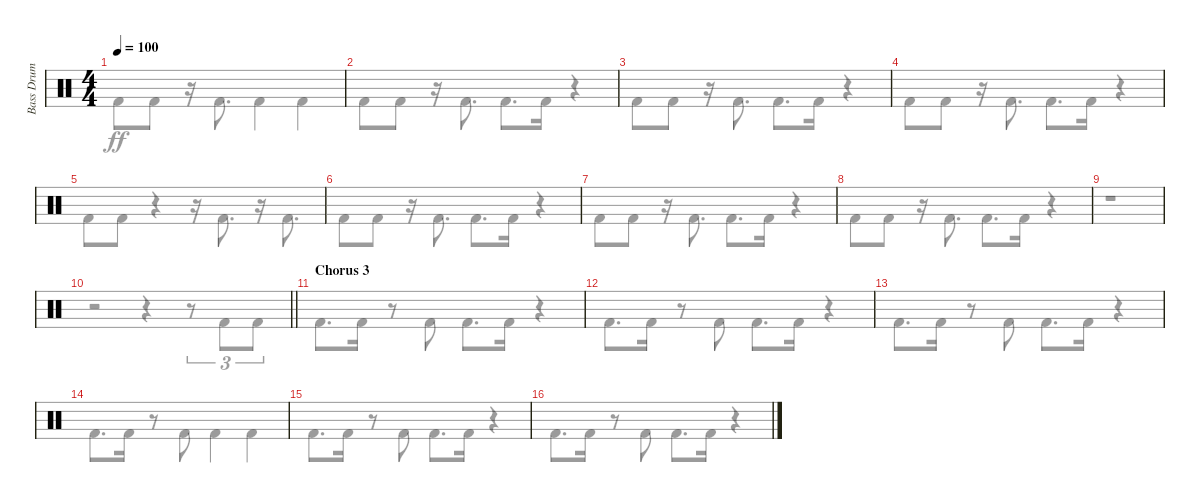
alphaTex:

\track ("Bass Drum" "Bass Drum") {instrument percussion}
\staff {score}
\articulation defaults
\voice
\ts (4 4)
\tempo 100
\clef neutral
\ks c
|
|
|
|
|
|
|
|
|
\barLineRight lightlight
|
\section ("" "Chorus 3")
|
|
|
|
|
\voice
\clef neutral
\ks c "Kick (hit) 2".8{dy ff} "Kick (hit) 2".8
r.16 "Kick (hit) 2".8{d} "Kick (hit) 2".4 "Kick (hit) 2".4 |
"Kick (hit) 2".8 "Kick (hit) 2".8 r.16 "Kick (hit) 2".8{d} "Kick (hit) 2".8{d} "Kick (hit) 2".16 r.4 |
"Kick (hit) 2".8 "Kick (hit) 2".8 r.16 "Kick (hit) 2".8{d} "Kick (hit) 2".8{d} "Kick (hit) 2".16 r.4 |
"Kick (hit) 2".8 "Kick (hit) 2".8 r.16 "Kick (hit) 2".8{d} "Kick (hit) 2".8{d} "Kick (hit) 2".16 r.4 |
"Kick (hit) 2".8 "Kick (hit) 2".8 r.4 r.16 "Kick (hit) 2".8{d} r.16 "Kick (hit) 2".8{d} |
"Kick (hit) 2".8 "Kick (hit) 2".8 r.16 "Kick (hit) 2".8{d} "Kick (hit) 2".8{d} "Kick (hit) 2".16 r.4 |
"Kick (hit) 2".8 "Kick (hit) 2".8 r.16 "Kick (hit) 2".8{d} "Kick (hit) 2".8{d} "Kick (hit) 2".16 r.4 |
"Kick (hit) 2".8 "Kick (hit) 2".8 r.16 "Kick (hit) 2".8{d} "Kick (hit) 2".8{d} "Kick (hit) 2".16 r.4 |
r.1 |
\barLineRight lightlight
r.2 r.4 r.8{tu (3 2)} "Kick (hit) 2".8{tu (3 2)} "Kick (hit) 2".8{tu (3 2)} |
"Kick (hit) 2".8{d} "Kick (hit) 2".16 r.8 "Kick (hit) 2".8 "Kick (hit) 2".8{d} "Kick (hit) 2".16 r.4 |
"Kick (hit) 2".8{d} "Kick (hit) 2".16 r.8 "Kick (hit) 2".8 "Kick (hit) 2".8{d} "Kick (hit) 2".16 r.4 |
"Kick (hit) 2".8{d} "Kick (hit) 2".16 r.8 "Kick (hit) 2".8 "Kick (hit) 2".8{d} "Kick (hit) 2".16 r.4 |
"Kick (hit) 2".8{d} "Kick (hit) 2".16 r.8 "Kick (hit) 2".8 "Kick (hit) 2".4 "Kick (hit) 2".4 |
"Kick (hit) 2".8{d} "Kick (hit) 2".16 r.8 "Kick (hit) 2".8 "Kick (hit) 2".8{d} "Kick (hit) 2".16 r.4 |
"Kick (hit) 2".8{d} "Kick (hit) 2".16 r.8 "Kick (hit) 2".8 "Kick (hit) 2".8{d} "Kick (hit) 2".16 r.4
